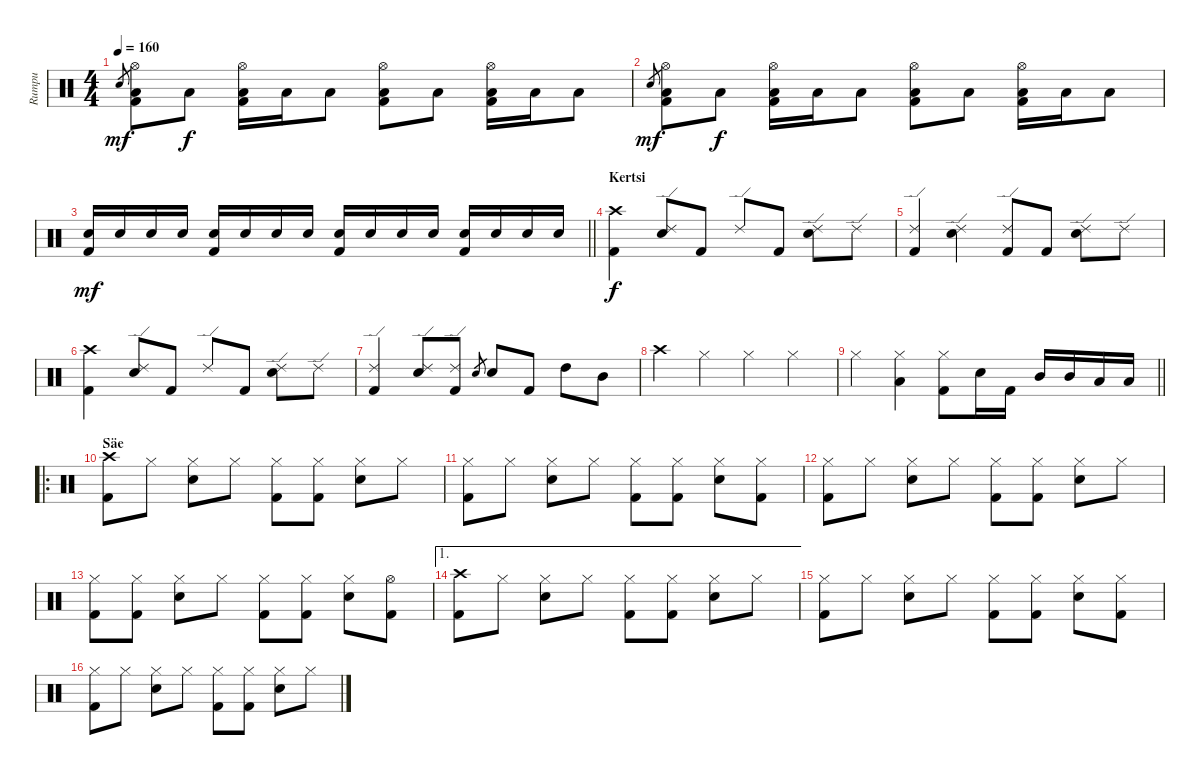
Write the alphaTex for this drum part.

\track ("Rumpu" "Rumpu") {instrument percussion}
\staff {score}
\articulation defaults
\ts (4 4)
\tempo 160
\clef neutral
\ks c "Snare (hit)".8{gr dy mf}
("Hi-Hat (open)" "Low Floor Tom (hit)" "Kick (hit) 2").8 "Low Floor Tom (hit)".8{dy f} ("Hi-Hat (open)" "Low Floor Tom (hit)" "Kick (hit) 2").16 "Low Floor Tom (hit)".16 "Low Floor Tom (hit)".8 ("Hi-Hat (open)" "Low Floor Tom (hit)" "Kick (hit) 2").8 "Low Floor Tom (hit)".8 ("Hi-Hat (open)" "Low Floor Tom (hit)" "Kick (hit) 2").16 "Low Floor Tom (hit)".16 "Low Floor Tom (hit)".8 |
"Snare (hit)".8{gr dy mf} ("Hi-Hat (open)" "Low Floor Tom (hit)" "Kick (hit) 2").8 "Low Floor Tom (hit)".8{dy f} ("Hi-Hat (open)" "Low Floor Tom (hit)" "Kick (hit) 2").16 "Low Floor Tom (hit)".16 "Low Floor Tom (hit)".8 ("Hi-Hat (open)" "Low Floor Tom (hit)" "Kick (hit) 2").8 "Low Floor Tom (hit)".8 ("Hi-Hat (open)" "Low Floor Tom (hit)" "Kick (hit) 2").16 "Low Floor Tom (hit)".16 "Low Floor Tom (hit)".8 |
\barLineRight lightlight
("Snare (hit) 2" "Kick (hit) 2").16{dy mf} "Snare (hit) 2".16 "Snare (hit) 2".16 "Snare (hit) 2".16 ("Snare (hit) 2" "Kick (hit) 2").16 "Snare (hit) 2".16 "Snare (hit) 2".16 "Snare (hit) 2".16 ("Snare (hit) 2" "Kick (hit) 2").16 "Snare (hit) 2".16 "Snare (hit) 2".16 "Snare (hit) 2".16 ("Snare (hit) 2" "Kick (hit) 2").16 "Snare (hit) 2".16 "Snare (hit) 2".16 "Snare (hit) 2".16 |
\section ("" "Kertsi")
("Crash high (hit)" "Kick (hit) 2").4{dy f} ("Ride (edge) 2" "Snare (hit) 2").8 "Kick (hit) 2".8 "Ride (edge) 2".8 "Kick (hit) 2".8 ("Ride (edge) 2" "Snare (hit) 2").8 "Ride (edge) 2".8 |
("Ride (edge) 2" "Kick (hit) 2").4 ("Ride (edge) 2" "Snare (hit) 2").4 ("Ride (edge) 2" "Kick (hit) 2").8 "Kick (hit) 2".8 ("Ride (edge) 2" "Snare (hit) 2").8 "Ride (edge) 2".8 |
("Crash high (hit)" "Kick (hit) 2").4 ("Ride (edge) 2" "Snare (hit) 2").8 "Kick (hit) 2".8 "Ride (edge) 2".8 "Kick (hit) 2".8 ("Ride (edge) 2" "Snare (hit) 2").8 "Ride (edge) 2".8 |
("Ride (edge) 2" "Kick (hit) 2").4 ("Ride (edge) 2" "Snare (hit) 2").8 ("Ride (edge) 2" "Kick (hit) 2").8 "Snare (hit) 2"{sl}.8{gr} "Snare (hit) 2".8 "Kick (hit) 2".8 "High Tom (hit)".8 "Mid Tom (hit)".8 |
"Crash high (hit)".4 "Hi-Hat (closed)".4 "Hi-Hat (closed)".4 "Hi-Hat (closed)".4 |
\barLineRight lightlight "Hi-Hat (closed)".4
("Hi-Hat (closed)" "Low Floor Tom (hit)").4 ("Hi-Hat (closed)" "Kick (hit) 2").8 "Snare (hit) 2".16 "Kick (hit) 2".16 "Mid Tom (hit)".16 "Mid Tom (hit)".16 "Low Tom (hit)".16 "Low Tom (hit)".16 |
\ro
\section ("" "Säe")
("Crash high (hit)" "Kick (hit) 2").8 "Hi-Hat (closed)".8 ("Hi-Hat (closed)" "Snare (hit) 2").8 "Hi-Hat (closed)".8 ("Hi-Hat (closed)" "Kick (hit) 2").8 ("Hi-Hat (closed)" "Kick (hit) 2").8 ("Hi-Hat (closed)" "Snare (hit) 2").8 "Hi-Hat (closed)".8 |
("Hi-Hat (closed)" "Kick (hit) 2").8 "Hi-Hat (closed)".8 ("Hi-Hat (closed)" "Snare (hit) 2").8 "Hi-Hat (closed)".8 ("Hi-Hat (closed)" "Kick (hit) 2").8 ("Hi-Hat (closed)" "Kick (hit) 2").8 ("Hi-Hat (closed)" "Snare (hit) 2").8 ("Hi-Hat (closed)" "Kick (hit) 2").8 |
("Hi-Hat (closed)" "Kick (hit) 2").8 "Hi-Hat (closed)".8 ("Hi-Hat (closed)" "Snare (hit) 2").8 "Hi-Hat (closed)".8 ("Hi-Hat (closed)" "Kick (hit) 2").8 ("Hi-Hat (closed)" "Kick (hit) 2").8 ("Hi-Hat (closed)" "Snare (hit) 2").8 "Hi-Hat (closed)".8 |
("Hi-Hat (closed)" "Kick (hit) 2").8 ("Hi-Hat (closed)" "Kick (hit) 2").8 ("Hi-Hat (closed)" "Snare (hit) 2").8 "Hi-Hat (closed)".8 ("Hi-Hat (closed)" "Kick (hit) 2").8 ("Hi-Hat (closed)" "Kick (hit) 2").8 ("Hi-Hat (closed)" "Snare (hit) 2").8 ("Hi-Hat (open)" "Kick (hit) 2").8 |
\ae 1
("Crash high (hit)" "Kick (hit) 2").8 "Hi-Hat (closed)".8 ("Hi-Hat (closed)" "Snare (hit) 2").8 "Hi-Hat (closed)".8 ("Hi-Hat (closed)" "Kick (hit) 2").8 ("Hi-Hat (closed)" "Kick (hit) 2").8 ("Hi-Hat (closed)" "Snare (hit) 2").8 "Hi-Hat (closed)".8 |
("Hi-Hat (closed)" "Kick (hit) 2").8 "Hi-Hat (closed)".8 ("Hi-Hat (closed)" "Snare (hit) 2").8 "Hi-Hat (closed)".8 ("Hi-Hat (closed)" "Kick (hit) 2").8 ("Hi-Hat (closed)" "Kick (hit) 2").8 ("Hi-Hat (closed)" "Snare (hit) 2").8 ("Hi-Hat (closed)" "Kick (hit) 2").8 |
("Hi-Hat (closed)" "Kick (hit) 2").8 "Hi-Hat (closed)".8 ("Hi-Hat (closed)" "Snare (hit) 2").8 "Hi-Hat (closed)".8 ("Hi-Hat (closed)" "Kick (hit) 2").8 ("Hi-Hat (closed)" "Kick (hit) 2").8 ("Hi-Hat (closed)" "Snare (hit) 2").8 "Hi-Hat (closed)".8
